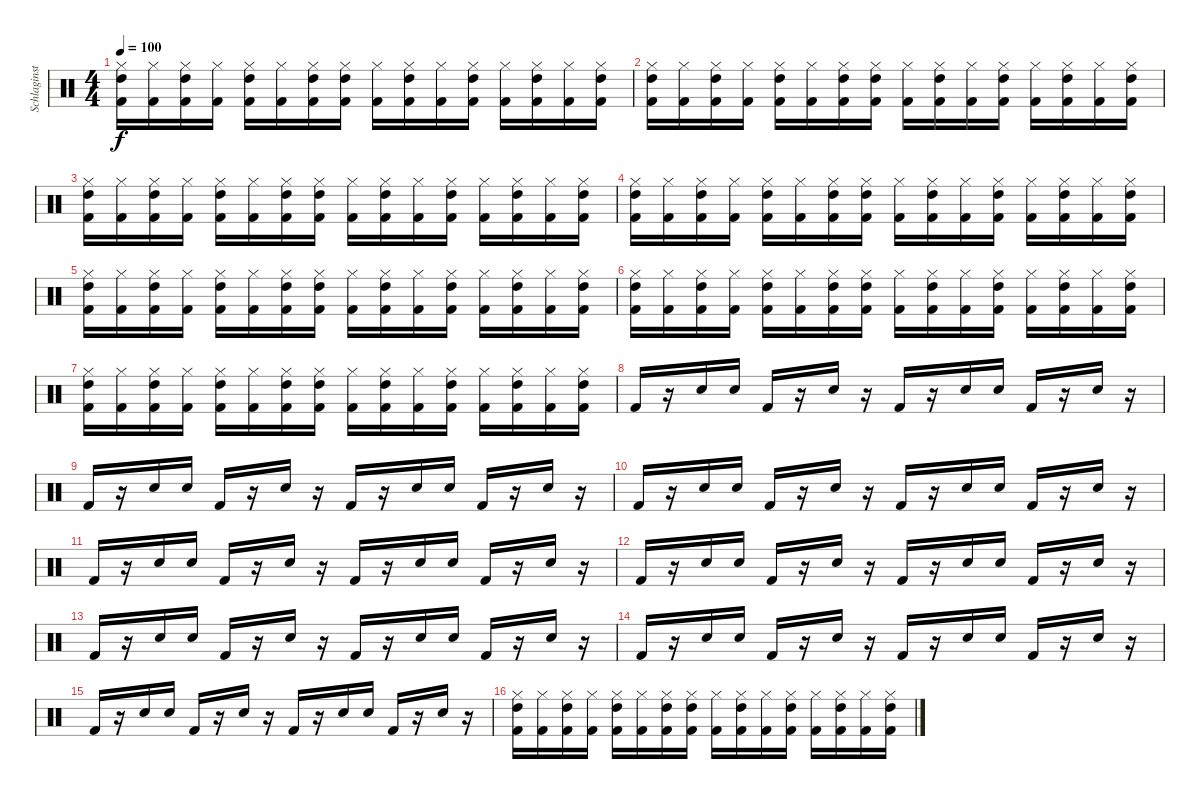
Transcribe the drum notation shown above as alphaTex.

\track ("Schlaginstrumente - Auswahl" "Schlaginst") {instrument percussion}
\staff {score}
\articulation defaults
\ts (4 4)
\tempo 100
\clef neutral
\ks c
("Hi-Hat (closed)" "Kick (hit) 2" "High Tom (hit)").16{dy f} ("Hi-Hat (closed)" "Kick (hit) 2").16 ("Hi-Hat (closed)" "Kick (hit) 2" "High Tom (hit)").16 ("Hi-Hat (closed)" "Kick (hit) 2").16 ("Hi-Hat (closed)" "Kick (hit) 2" "High Tom (hit)").16 ("Hi-Hat (closed)" "Kick (hit) 2").16 ("Hi-Hat (closed)" "Kick (hit) 2" "High Tom (hit)").16 ("Hi-Hat (closed)" "Kick (hit) 2" "High Tom (hit)").16 ("Hi-Hat (closed)" "Kick (hit) 2").16 ("Hi-Hat (closed)" "Kick (hit) 2" "High Tom (hit)").16 ("Hi-Hat (closed)" "Kick (hit) 2").16 ("Hi-Hat (closed)" "Kick (hit) 2" "High Tom (hit)").16 ("Hi-Hat (closed)" "Kick (hit) 2").16 ("Hi-Hat (closed)" "Kick (hit) 2" "High Tom (hit)").16 ("Hi-Hat (closed)" "Kick (hit) 2").16 ("Hi-Hat (closed)" "Kick (hit) 2" "High Tom (hit)").16 |
("Hi-Hat (closed)" "Kick (hit) 2" "High Tom (hit)").16 ("Hi-Hat (closed)" "Kick (hit) 2").16 ("Hi-Hat (closed)" "Kick (hit) 2" "High Tom (hit)").16 ("Hi-Hat (closed)" "Kick (hit) 2").16 ("Hi-Hat (closed)" "Kick (hit) 2" "High Tom (hit)").16 ("Hi-Hat (closed)" "Kick (hit) 2").16 ("Hi-Hat (closed)" "Kick (hit) 2" "High Tom (hit)").16 ("Hi-Hat (closed)" "Kick (hit) 2" "High Tom (hit)").16 ("Hi-Hat (closed)" "Kick (hit) 2").16 ("Hi-Hat (closed)" "Kick (hit) 2" "High Tom (hit)").16 ("Hi-Hat (closed)" "Kick (hit) 2").16 ("Hi-Hat (closed)" "Kick (hit) 2" "High Tom (hit)").16 ("Hi-Hat (closed)" "Kick (hit) 2").16 ("Hi-Hat (closed)" "Kick (hit) 2" "High Tom (hit)").16 ("Hi-Hat (closed)" "Kick (hit) 2").16 ("Hi-Hat (closed)" "Kick (hit) 2" "High Tom (hit)").16 |
("Hi-Hat (closed)" "Kick (hit) 2" "High Tom (hit)").16 ("Hi-Hat (closed)" "Kick (hit) 2").16 ("Hi-Hat (closed)" "Kick (hit) 2" "High Tom (hit)").16 ("Hi-Hat (closed)" "Kick (hit) 2").16 ("Hi-Hat (closed)" "Kick (hit) 2" "High Tom (hit)").16 ("Hi-Hat (closed)" "Kick (hit) 2").16 ("Hi-Hat (closed)" "Kick (hit) 2" "High Tom (hit)").16 ("Hi-Hat (closed)" "Kick (hit) 2" "High Tom (hit)").16 ("Hi-Hat (closed)" "Kick (hit) 2").16 ("Hi-Hat (closed)" "Kick (hit) 2" "High Tom (hit)").16 ("Hi-Hat (closed)" "Kick (hit) 2").16 ("Hi-Hat (closed)" "Kick (hit) 2" "High Tom (hit)").16 ("Hi-Hat (closed)" "Kick (hit) 2").16 ("Hi-Hat (closed)" "Kick (hit) 2" "High Tom (hit)").16 ("Hi-Hat (closed)" "Kick (hit) 2").16 ("Hi-Hat (closed)" "Kick (hit) 2" "High Tom (hit)").16 |
("Hi-Hat (closed)" "Kick (hit) 2" "High Tom (hit)").16 ("Hi-Hat (closed)" "Kick (hit) 2").16 ("Hi-Hat (closed)" "Kick (hit) 2" "High Tom (hit)").16 ("Hi-Hat (closed)" "Kick (hit) 2").16 ("Hi-Hat (closed)" "Kick (hit) 2" "High Tom (hit)").16 ("Hi-Hat (closed)" "Kick (hit) 2").16 ("Hi-Hat (closed)" "Kick (hit) 2" "High Tom (hit)").16 ("Hi-Hat (closed)" "Kick (hit) 2" "High Tom (hit)").16 ("Hi-Hat (closed)" "Kick (hit) 2").16 ("Hi-Hat (closed)" "Kick (hit) 2" "High Tom (hit)").16 ("Hi-Hat (closed)" "Kick (hit) 2").16 ("Hi-Hat (closed)" "Kick (hit) 2" "High Tom (hit)").16 ("Hi-Hat (closed)" "Kick (hit) 2").16 ("Hi-Hat (closed)" "Kick (hit) 2" "High Tom (hit)").16 ("Hi-Hat (closed)" "Kick (hit) 2").16 ("Hi-Hat (closed)" "Kick (hit) 2" "High Tom (hit)").16 |
("Hi-Hat (closed)" "Kick (hit) 2" "High Tom (hit)").16 ("Hi-Hat (closed)" "Kick (hit) 2").16 ("Hi-Hat (closed)" "Kick (hit) 2" "High Tom (hit)").16 ("Hi-Hat (closed)" "Kick (hit) 2").16 ("Hi-Hat (closed)" "Kick (hit) 2" "High Tom (hit)").16 ("Hi-Hat (closed)" "Kick (hit) 2").16 ("Hi-Hat (closed)" "Kick (hit) 2" "High Tom (hit)").16 ("Hi-Hat (closed)" "Kick (hit) 2" "High Tom (hit)").16 ("Hi-Hat (closed)" "Kick (hit) 2").16 ("Hi-Hat (closed)" "Kick (hit) 2" "High Tom (hit)").16 ("Hi-Hat (closed)" "Kick (hit) 2").16 ("Hi-Hat (closed)" "Kick (hit) 2" "High Tom (hit)").16 ("Hi-Hat (closed)" "Kick (hit) 2").16 ("Hi-Hat (closed)" "Kick (hit) 2" "High Tom (hit)").16 ("Hi-Hat (closed)" "Kick (hit) 2").16 ("Hi-Hat (closed)" "Kick (hit) 2" "High Tom (hit)").16 |
("Hi-Hat (closed)" "Kick (hit) 2" "High Tom (hit)").16 ("Hi-Hat (closed)" "Kick (hit) 2").16 ("Hi-Hat (closed)" "Kick (hit) 2" "High Tom (hit)").16 ("Hi-Hat (closed)" "Kick (hit) 2").16 ("Hi-Hat (closed)" "Kick (hit) 2" "High Tom (hit)").16 ("Hi-Hat (closed)" "Kick (hit) 2").16 ("Hi-Hat (closed)" "Kick (hit) 2" "High Tom (hit)").16 ("Hi-Hat (closed)" "Kick (hit) 2" "High Tom (hit)").16 ("Hi-Hat (closed)" "Kick (hit) 2").16 ("Hi-Hat (closed)" "Kick (hit) 2" "High Tom (hit)").16 ("Hi-Hat (closed)" "Kick (hit) 2").16 ("Hi-Hat (closed)" "Kick (hit) 2" "High Tom (hit)").16 ("Hi-Hat (closed)" "Kick (hit) 2").16 ("Hi-Hat (closed)" "Kick (hit) 2" "High Tom (hit)").16 ("Hi-Hat (closed)" "Kick (hit) 2").16 ("Hi-Hat (closed)" "Kick (hit) 2" "High Tom (hit)").16 |
("Hi-Hat (closed)" "Kick (hit) 2" "High Tom (hit)").16 ("Hi-Hat (closed)" "Kick (hit) 2").16 ("Hi-Hat (closed)" "Kick (hit) 2" "High Tom (hit)").16 ("Hi-Hat (closed)" "Kick (hit) 2").16 ("Hi-Hat (closed)" "Kick (hit) 2" "High Tom (hit)").16 ("Hi-Hat (closed)" "Kick (hit) 2").16 ("Hi-Hat (closed)" "Kick (hit) 2" "High Tom (hit)").16 ("Hi-Hat (closed)" "Kick (hit) 2" "High Tom (hit)").16 ("Hi-Hat (closed)" "Kick (hit) 2").16 ("Hi-Hat (closed)" "Kick (hit) 2" "High Tom (hit)").16 ("Hi-Hat (closed)" "Kick (hit) 2").16 ("Hi-Hat (closed)" "Kick (hit) 2" "High Tom (hit)").16 ("Hi-Hat (closed)" "Kick (hit) 2").16 ("Hi-Hat (closed)" "Kick (hit) 2" "High Tom (hit)").16 ("Hi-Hat (closed)" "Kick (hit) 2").16 ("Hi-Hat (closed)" "Kick (hit) 2" "High Tom (hit)").16 |
"Kick (hit) 2".16 r.16 "Snare (hit) 2".16 "Snare (hit) 2".16 "Kick (hit) 2".16 r.16 "Snare (hit) 2".16 r.16 "Kick (hit) 2".16 r.16 "Snare (hit) 2".16 "Snare (hit) 2".16 "Kick (hit) 2".16 r.16 "Snare (hit) 2".16 r.16 |
"Kick (hit) 2".16 r.16 "Snare (hit) 2".16 "Snare (hit) 2".16 "Kick (hit) 2".16 r.16 "Snare (hit) 2".16 r.16 "Kick (hit) 2".16 r.16 "Snare (hit) 2".16 "Snare (hit) 2".16 "Kick (hit) 2".16 r.16 "Snare (hit) 2".16 r.16 |
"Kick (hit) 2".16 r.16 "Snare (hit) 2".16 "Snare (hit) 2".16 "Kick (hit) 2".16 r.16 "Snare (hit) 2".16 r.16 "Kick (hit) 2".16 r.16 "Snare (hit) 2".16 "Snare (hit) 2".16 "Kick (hit) 2".16 r.16 "Snare (hit) 2".16 r.16 |
"Kick (hit) 2".16 r.16 "Snare (hit) 2".16 "Snare (hit) 2".16 "Kick (hit) 2".16 r.16 "Snare (hit) 2".16 r.16 "Kick (hit) 2".16 r.16 "Snare (hit) 2".16 "Snare (hit) 2".16 "Kick (hit) 2".16 r.16 "Snare (hit) 2".16 r.16 |
"Kick (hit) 2".16 r.16 "Snare (hit) 2".16 "Snare (hit) 2".16 "Kick (hit) 2".16 r.16 "Snare (hit) 2".16 r.16 "Kick (hit) 2".16 r.16 "Snare (hit) 2".16 "Snare (hit) 2".16 "Kick (hit) 2".16 r.16 "Snare (hit) 2".16 r.16 |
"Kick (hit) 2".16 r.16 "Snare (hit) 2".16 "Snare (hit) 2".16 "Kick (hit) 2".16 r.16 "Snare (hit) 2".16 r.16 "Kick (hit) 2".16 r.16 "Snare (hit) 2".16 "Snare (hit) 2".16 "Kick (hit) 2".16 r.16 "Snare (hit) 2".16 r.16 |
"Kick (hit) 2".16 r.16 "Snare (hit) 2".16 "Snare (hit) 2".16 "Kick (hit) 2".16 r.16 "Snare (hit) 2".16 r.16 "Kick (hit) 2".16 r.16 "Snare (hit) 2".16 "Snare (hit) 2".16 "Kick (hit) 2".16 r.16 "Snare (hit) 2".16 r.16 |
"Kick (hit) 2".16 r.16 "Snare (hit) 2".16 "Snare (hit) 2".16 "Kick (hit) 2".16 r.16 "Snare (hit) 2".16 r.16 "Kick (hit) 2".16 r.16 "Snare (hit) 2".16 "Snare (hit) 2".16 "Kick (hit) 2".16 r.16 "Snare (hit) 2".16 r.16 |
("Hi-Hat (closed)" "Kick (hit) 2" "High Tom (hit)").16 ("Hi-Hat (closed)" "Kick (hit) 2").16 ("Hi-Hat (closed)" "Kick (hit) 2" "High Tom (hit)").16 ("Hi-Hat (closed)" "Kick (hit) 2").16 ("Hi-Hat (closed)" "Kick (hit) 2" "High Tom (hit)").16 ("Hi-Hat (closed)" "Kick (hit) 2").16 ("Hi-Hat (closed)" "Kick (hit) 2" "High Tom (hit)").16 ("Hi-Hat (closed)" "Kick (hit) 2" "High Tom (hit)").16 ("Hi-Hat (closed)" "Kick (hit) 2").16 ("Hi-Hat (closed)" "Kick (hit) 2" "High Tom (hit)").16 ("Hi-Hat (closed)" "Kick (hit) 2").16 ("Hi-Hat (closed)" "Kick (hit) 2" "High Tom (hit)").16 ("Hi-Hat (closed)" "Kick (hit) 2").16 ("Hi-Hat (closed)" "Kick (hit) 2" "High Tom (hit)").16 ("Hi-Hat (closed)" "Kick (hit) 2").16 ("Hi-Hat (closed)" "Kick (hit) 2" "High Tom (hit)").16
